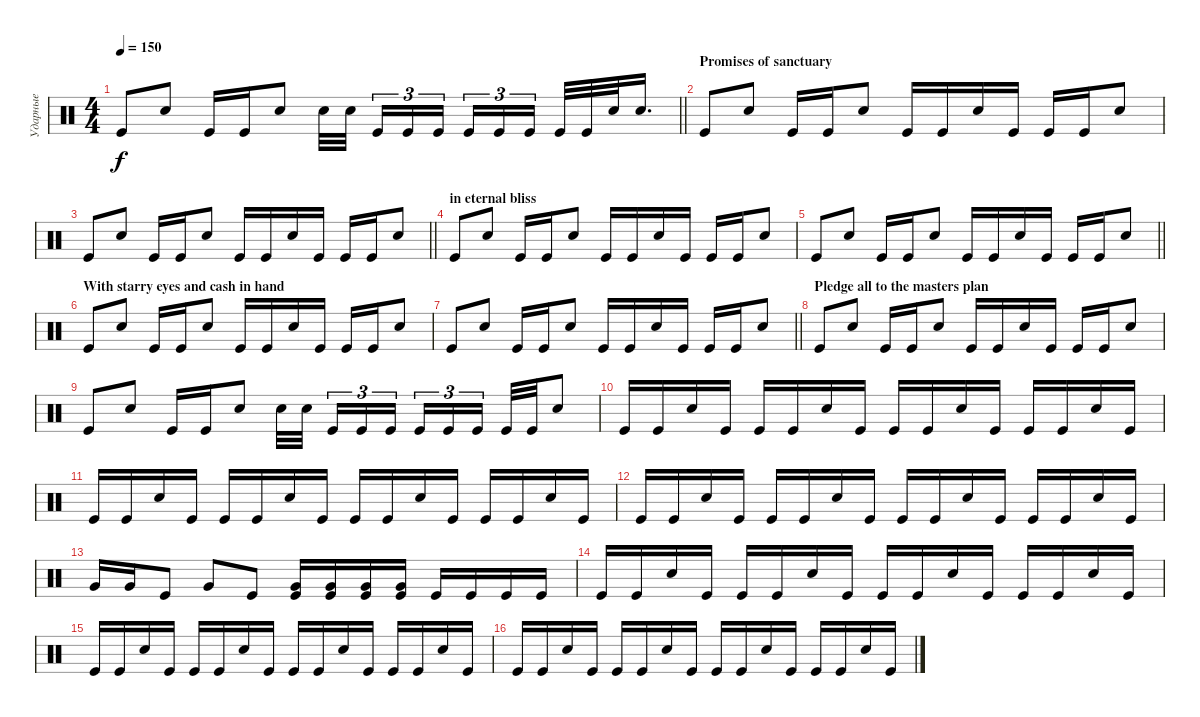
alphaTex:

\track ("Ударные" "Ударные") {instrument percussion}
\staff {score}
\articulation defaults
\ts (4 4)
\tempo 150
\clef neutral
\barLineRight lightlight
\ks c "Kick (hit)".8{dy f} "Snare (hit) 2".8 "Kick (hit)".16 "Kick (hit)".16 "Snare (hit) 2".8 "Snare (hit) 2".32 "Snare (hit) 2".32{beam splitsecondary} "Kick (hit)".16{tu (3 2)} "Kick (hit)".16{tu (3 2)} "Kick (hit)".16{tu (3 2) beam splitsecondary} "Kick (hit)".16{tu (3 2)} "Kick (hit)".16{tu (3 2)} "Kick (hit)".16{tu (3 2) beam splitsecondary} "Kick (hit)".32 "Kick (hit)".32 "Snare (hit) 2".32 "Snare (hit) 2".16{d}
|
\section ("" "Promises of sanctuary")
"Kick (hit)".8 "Snare (hit) 2".8 "Kick (hit)".16 "Kick (hit)".16 "Snare (hit) 2".8 "Kick (hit)".16 "Kick (hit)".16 "Snare (hit) 2".16 "Kick (hit)".16 "Kick (hit)".16 "Kick (hit)".16 "Snare (hit) 2".8 |
\barLineRight lightlight "Kick (hit)".8 "Snare (hit) 2".8 "Kick (hit)".16 "Kick (hit)".16 "Snare (hit) 2".8 "Kick (hit)".16 "Kick (hit)".16 "Snare (hit) 2".16 "Kick (hit)".16 "Kick (hit)".16 "Kick (hit)".16 "Snare (hit) 2".8
|
\section ("" "in eternal bliss")
"Kick (hit)".8 "Snare (hit) 2".8 "Kick (hit)".16 "Kick (hit)".16 "Snare (hit) 2".8 "Kick (hit)".16 "Kick (hit)".16 "Snare (hit) 2".16 "Kick (hit)".16 "Kick (hit)".16 "Kick (hit)".16 "Snare (hit) 2".8 |
\barLineRight lightlight "Kick (hit)".8 "Snare (hit) 2".8 "Kick (hit)".16 "Kick (hit)".16 "Snare (hit) 2".8 "Kick (hit)".16 "Kick (hit)".16 "Snare (hit) 2".16 "Kick (hit)".16 "Kick (hit)".16 "Kick (hit)".16 "Snare (hit) 2".8
|
\section ("" "With starry eyes and cash in hand")
"Kick (hit)".8 "Snare (hit) 2".8 "Kick (hit)".16 "Kick (hit)".16 "Snare (hit) 2".8 "Kick (hit)".16 "Kick (hit)".16 "Snare (hit) 2".16 "Kick (hit)".16 "Kick (hit)".16 "Kick (hit)".16 "Snare (hit) 2".8 |
\barLineRight lightlight "Kick (hit)".8 "Snare (hit) 2".8 "Kick (hit)".16 "Kick (hit)".16 "Snare (hit) 2".8 "Kick (hit)".16 "Kick (hit)".16 "Snare (hit) 2".16 "Kick (hit)".16 "Kick (hit)".16 "Kick (hit)".16 "Snare (hit) 2".8
|
\section ("" "Pledge all to the masters plan")
"Kick (hit)".8 "Snare (hit) 2".8 "Kick (hit)".16 "Kick (hit)".16 "Snare (hit) 2".8 "Kick (hit)".16 "Kick (hit)".16 "Snare (hit) 2".16 "Kick (hit)".16 "Kick (hit)".16 "Kick (hit)".16 "Snare (hit) 2".8 |
"Kick (hit)".8 "Snare (hit) 2".8 "Kick (hit)".16 "Kick (hit)".16 "Snare (hit) 2".8 "Snare (hit) 2".32 "Snare (hit) 2".32{beam splitsecondary} "Kick (hit)".16{tu (3 2)} "Kick (hit)".16{tu (3 2)} "Kick (hit)".16{tu (3 2) beam splitsecondary} "Kick (hit)".16{tu (3 2)} "Kick (hit)".16{tu (3 2)} "Kick (hit)".16{tu (3 2) beam splitsecondary} "Kick (hit)".32 "Kick (hit)".32 "Snare (hit) 2".8 |
"Kick (hit)".16 "Kick (hit)".16 "Snare (hit) 2".16 "Kick (hit)".16 "Kick (hit)".16 "Kick (hit)".16 "Snare (hit) 2".16 "Kick (hit)".16 "Kick (hit)".16 "Kick (hit)".16 "Snare (hit) 2".16 "Kick (hit)".16 "Kick (hit)".16 "Kick (hit)".16 "Snare (hit) 2".16 "Kick (hit)".16 |
"Kick (hit)".16 "Kick (hit)".16 "Snare (hit) 2".16 "Kick (hit)".16 "Kick (hit)".16 "Kick (hit)".16 "Snare (hit) 2".16 "Kick (hit)".16 "Kick (hit)".16 "Kick (hit)".16 "Snare (hit) 2".16 "Kick (hit)".16 "Kick (hit)".16 "Kick (hit)".16 "Snare (hit) 2".16 "Kick (hit)".16 |
"Kick (hit)".16 "Kick (hit)".16 "Snare (hit) 2".16 "Kick (hit)".16 "Kick (hit)".16 "Kick (hit)".16 "Snare (hit) 2".16 "Kick (hit)".16 "Kick (hit)".16 "Kick (hit)".16 "Snare (hit) 2".16 "Kick (hit)".16 "Kick (hit)".16 "Kick (hit)".16 "Snare (hit) 2".16 "Kick (hit)".16 |
"Very Low Tom (hit)".16 "Very Low Tom (hit)".16 "Kick (hit)".8 "Very Low Tom (hit)".8 "Kick (hit)".8 ("Kick (hit)" "Very Low Tom (hit)").16 ("Kick (hit)" "Very Low Tom (hit)").16 ("Kick (hit)" "Very Low Tom (hit)").16 ("Kick (hit)" "Very Low Tom (hit)").16 "Kick (hit)".16 "Kick (hit)".16 "Kick (hit)".16 "Kick (hit)".16 |
"Kick (hit)".16 "Kick (hit)".16 "Snare (hit) 2".16 "Kick (hit)".16 "Kick (hit)".16 "Kick (hit)".16 "Snare (hit) 2".16 "Kick (hit)".16 "Kick (hit)".16 "Kick (hit)".16 "Snare (hit) 2".16 "Kick (hit)".16 "Kick (hit)".16 "Kick (hit)".16 "Snare (hit) 2".16 "Kick (hit)".16 |
"Kick (hit)".16 "Kick (hit)".16 "Snare (hit) 2".16 "Kick (hit)".16 "Kick (hit)".16 "Kick (hit)".16 "Snare (hit) 2".16 "Kick (hit)".16 "Kick (hit)".16 "Kick (hit)".16 "Snare (hit) 2".16 "Kick (hit)".16 "Kick (hit)".16 "Kick (hit)".16 "Snare (hit) 2".16 "Kick (hit)".16 |
"Kick (hit)".16 "Kick (hit)".16 "Snare (hit) 2".16 "Kick (hit)".16 "Kick (hit)".16 "Kick (hit)".16 "Snare (hit) 2".16 "Kick (hit)".16 "Kick (hit)".16 "Kick (hit)".16 "Snare (hit) 2".16 "Kick (hit)".16 "Kick (hit)".16 "Kick (hit)".16 "Snare (hit) 2".16 "Kick (hit)".16
